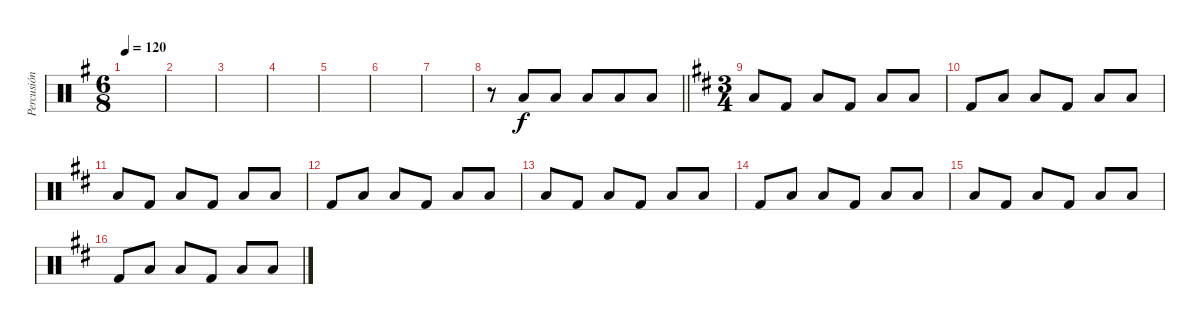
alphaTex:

\track ("Percusión" "Percusión") {instrument percussion}
\staff {score}
\articulation defaults
\ts (6 8)
\tempo 120
\clef neutral
\ks g
|
|
|
|
|
|
|
\barLineRight lightlight
r.8 "Low Tom (hit)".8 "Low Tom (hit)".8 "Low Tom (hit)".8 "Low Tom (hit)".8 "Low Tom (hit)".8 |
\ts (3 4)
\ks d "Low Tom (hit)".8 "Kick (hit) 2".8 "Low Tom (hit)".8 "Kick (hit) 2".8 "Low Tom (hit)".8 "Low Tom (hit)".8
|
"Kick (hit) 2".8 "Low Tom (hit)".8 "Low Tom (hit)".8 "Kick (hit) 2".8 "Low Tom (hit)".8 "Low Tom (hit)".8 |
"Low Tom (hit)".8 "Kick (hit) 2".8 "Low Tom (hit)".8 "Kick (hit) 2".8 "Low Tom (hit)".8 "Low Tom (hit)".8 |
"Kick (hit) 2".8 "Low Tom (hit)".8 "Low Tom (hit)".8 "Kick (hit) 2".8 "Low Tom (hit)".8 "Low Tom (hit)".8 |
"Low Tom (hit)".8 "Kick (hit) 2".8 "Low Tom (hit)".8 "Kick (hit) 2".8 "Low Tom (hit)".8 "Low Tom (hit)".8 |
"Kick (hit) 2".8 "Low Tom (hit)".8 "Low Tom (hit)".8 "Kick (hit) 2".8 "Low Tom (hit)".8 "Low Tom (hit)".8 |
"Low Tom (hit)".8 "Kick (hit) 2".8 "Low Tom (hit)".8 "Kick (hit) 2".8 "Low Tom (hit)".8 "Low Tom (hit)".8 |
"Kick (hit) 2".8 "Low Tom (hit)".8 "Low Tom (hit)".8 "Kick (hit) 2".8 "Low Tom (hit)".8 "Low Tom (hit)".8
